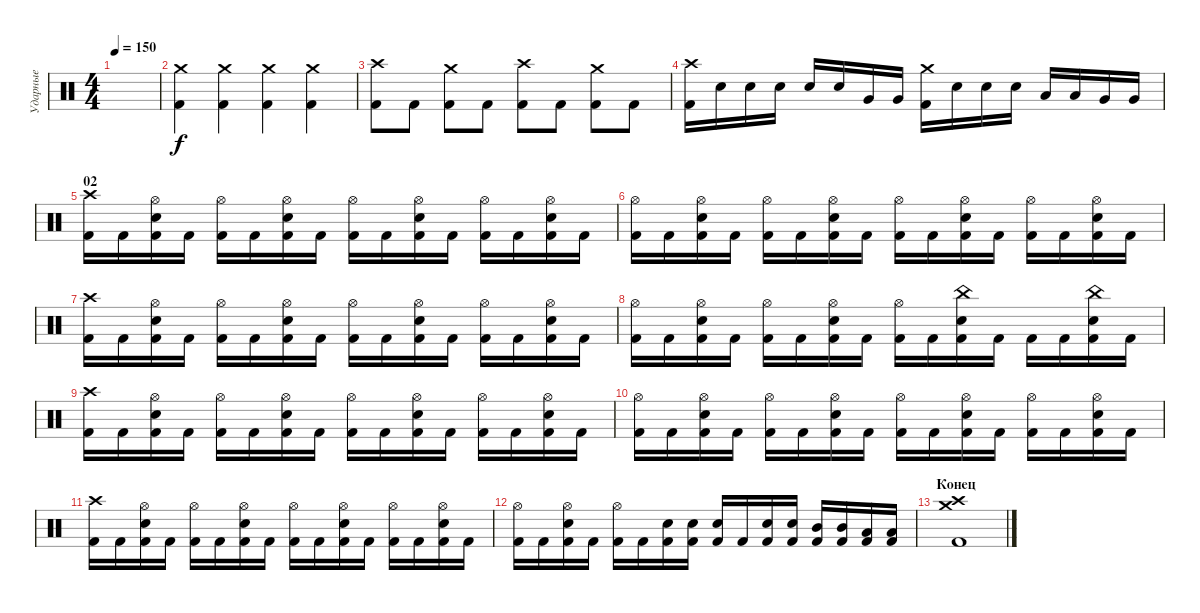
\track ("Ударные" "Ударные") {instrument percussion}
\staff {score}
\articulation defaults
\ts (4 4)
\tempo 150
\clef neutral
\ks c
|
("Crash medium (hit)" "Kick (hit) 2").4 ("Crash medium (hit)" "Kick (hit) 2").4 ("Crash medium (hit)" "Kick (hit) 2").4 ("Crash medium (hit)" "Kick (hit) 2").4 |
("Crash high (hit)" "Kick (hit) 2").8 "Kick (hit) 2".8 ("Crash medium (hit)" "Kick (hit) 2").8 "Kick (hit) 2".8 ("Crash high (hit)" "Kick (hit) 2").8 "Kick (hit) 2".8 ("Crash medium (hit)" "Kick (hit) 2").8 "Kick (hit) 2".8 |
("Crash high (hit)" "Kick (hit) 2").16 "Electric Snare (hit)".16 "Electric Snare (hit)".16 "Electric Snare (hit)".16 "Electric Snare (hit)".16 "Electric Snare (hit)".16 "Very Low Tom (hit)".16 "Very Low Tom (hit)".16 ("Crash medium (hit)" "Kick (hit) 2").16 "Electric Snare (hit)".16 "Electric Snare (hit)".16 "Electric Snare (hit)".16 "Low Tom (hit)".16 "Low Tom (hit)".16 "Very Low Tom (hit)".16 "Very Low Tom (hit)".16 |
\section ("" "02")
("Crash high (hit)" "Kick (hit) 2").16 "Kick (hit) 2".16 ("Hi-Hat (open)" "Electric Snare (hit)" "Kick (hit) 2").16 "Kick (hit) 2".16 ("Hi-Hat (open)" "Kick (hit) 2").16 "Kick (hit) 2".16 ("Hi-Hat (open)" "Electric Snare (hit)" "Kick (hit) 2").16 "Kick (hit) 2".16 ("Hi-Hat (open)" "Kick (hit) 2").16 "Kick (hit) 2".16 ("Hi-Hat (open)" "Electric Snare (hit)" "Kick (hit) 2").16 "Kick (hit) 2".16 ("Hi-Hat (open)" "Kick (hit) 2").16 "Kick (hit) 2".16 ("Hi-Hat (open)" "Electric Snare (hit)" "Kick (hit) 2").16 "Kick (hit) 2".16 |
("Hi-Hat (open)" "Kick (hit) 2").16 "Kick (hit) 2".16 ("Hi-Hat (open)" "Electric Snare (hit)" "Kick (hit) 2").16 "Kick (hit) 2".16 ("Hi-Hat (open)" "Kick (hit) 2").16 "Kick (hit) 2".16 ("Hi-Hat (open)" "Electric Snare (hit)" "Kick (hit) 2").16 "Kick (hit) 2".16 ("Hi-Hat (open)" "Kick (hit) 2").16 "Kick (hit) 2".16 ("Hi-Hat (open)" "Electric Snare (hit)" "Kick (hit) 2").16 "Kick (hit) 2".16 ("Hi-Hat (open)" "Kick (hit) 2").16 "Kick (hit) 2".16 ("Hi-Hat (open)" "Electric Snare (hit)" "Kick (hit) 2").16 "Kick (hit) 2".16 |
("Crash high (hit)" "Kick (hit) 2").16 "Kick (hit) 2".16 ("Hi-Hat (open)" "Electric Snare (hit)" "Kick (hit) 2").16 "Kick (hit) 2".16 ("Hi-Hat (open)" "Kick (hit) 2").16 "Kick (hit) 2".16 ("Hi-Hat (open)" "Electric Snare (hit)" "Kick (hit) 2").16 "Kick (hit) 2".16 ("Hi-Hat (open)" "Kick (hit) 2").16 "Kick (hit) 2".16 ("Hi-Hat (open)" "Electric Snare (hit)" "Kick (hit) 2").16 "Kick (hit) 2".16 ("Hi-Hat (open)" "Kick (hit) 2").16 "Kick (hit) 2".16 ("Hi-Hat (open)" "Electric Snare (hit)" "Kick (hit) 2").16 "Kick (hit) 2".16 |
("Hi-Hat (open)" "Kick (hit) 2").16 "Kick (hit) 2".16 ("Hi-Hat (open)" "Electric Snare (hit)" "Kick (hit) 2").16 "Kick (hit) 2".16 ("Hi-Hat (open)" "Kick (hit) 2").16 "Kick (hit) 2".16 ("Hi-Hat (open)" "Electric Snare (hit)" "Kick (hit) 2").16 "Kick (hit) 2".16 ("Hi-Hat (open)" "Kick (hit) 2").16 "Kick (hit) 2".16 ("China (hit)" "Electric Snare (hit)" "Kick (hit) 2").16 "Kick (hit) 2".16 "Kick (hit) 2".16 "Kick (hit) 2".16 ("China (hit)" "Electric Snare (hit)" "Kick (hit) 2").16 "Kick (hit) 2".16 |
("Crash high (hit)" "Kick (hit) 2").16 "Kick (hit) 2".16 ("Hi-Hat (open)" "Electric Snare (hit)" "Kick (hit) 2").16 "Kick (hit) 2".16 ("Hi-Hat (open)" "Kick (hit) 2").16 "Kick (hit) 2".16 ("Hi-Hat (open)" "Electric Snare (hit)" "Kick (hit) 2").16 "Kick (hit) 2".16 ("Hi-Hat (open)" "Kick (hit) 2").16 "Kick (hit) 2".16 ("Hi-Hat (open)" "Electric Snare (hit)" "Kick (hit) 2").16 "Kick (hit) 2".16 ("Hi-Hat (open)" "Kick (hit) 2").16 "Kick (hit) 2".16 ("Hi-Hat (open)" "Electric Snare (hit)" "Kick (hit) 2").16 "Kick (hit) 2".16 |
("Hi-Hat (open)" "Kick (hit) 2").16 "Kick (hit) 2".16 ("Hi-Hat (open)" "Electric Snare (hit)" "Kick (hit) 2").16 "Kick (hit) 2".16 ("Hi-Hat (open)" "Kick (hit) 2").16 "Kick (hit) 2".16 ("Hi-Hat (open)" "Electric Snare (hit)" "Kick (hit) 2").16 "Kick (hit) 2".16 ("Hi-Hat (open)" "Kick (hit) 2").16 "Kick (hit) 2".16 ("Hi-Hat (open)" "Electric Snare (hit)" "Kick (hit) 2").16 "Kick (hit) 2".16 ("Hi-Hat (open)" "Kick (hit) 2").16 "Kick (hit) 2".16 ("Hi-Hat (open)" "Electric Snare (hit)" "Kick (hit) 2").16 "Kick (hit) 2".16 |
("Crash high (hit)" "Kick (hit) 2").16 "Kick (hit) 2".16 ("Hi-Hat (open)" "Electric Snare (hit)" "Kick (hit) 2").16 "Kick (hit) 2".16 ("Hi-Hat (open)" "Kick (hit) 2").16 "Kick (hit) 2".16 ("Hi-Hat (open)" "Electric Snare (hit)" "Kick (hit) 2").16 "Kick (hit) 2".16 ("Hi-Hat (open)" "Kick (hit) 2").16 "Kick (hit) 2".16 ("Hi-Hat (open)" "Electric Snare (hit)" "Kick (hit) 2").16 "Kick (hit) 2".16 ("Hi-Hat (open)" "Kick (hit) 2").16 "Kick (hit) 2".16 ("Hi-Hat (open)" "Electric Snare (hit)" "Kick (hit) 2").16 "Kick (hit) 2".16 |
("Hi-Hat (open)" "Kick (hit) 2").16 "Kick (hit) 2".16 ("Hi-Hat (open)" "Electric Snare (hit)" "Kick (hit) 2").16 "Kick (hit) 2".16 ("Hi-Hat (open)" "Kick (hit) 2").16 "Kick (hit) 2".16 ("Electric Snare (hit)" "Kick (hit) 2").16 ("Electric Snare (hit)" "Kick (hit) 2").16 ("Electric Snare (hit)" "Kick (hit) 2").16 "Kick (hit) 2".16 ("Electric Snare (hit)" "Kick (hit) 2").16 ("Electric Snare (hit)" "Kick (hit) 2").16 ("Mid Tom (hit)" "Kick (hit) 2").16 ("Mid Tom (hit)" "Kick (hit) 2").16 ("Low Tom (hit)" "Kick (hit) 2").16 ("Low Tom (hit)" "Kick (hit) 2").16 |
\section ("" "Конец")
("Crash high (hit)" "Crash medium (hit)" "Kick (hit) 2").1
